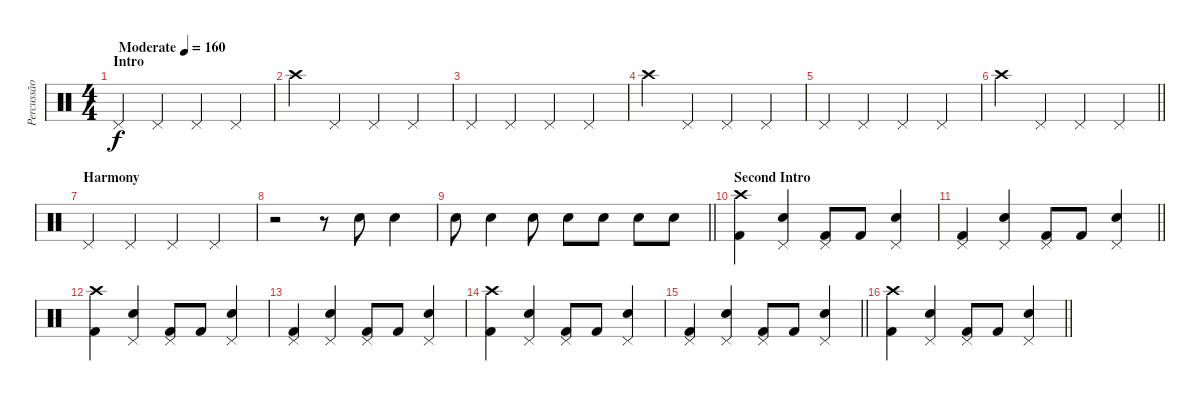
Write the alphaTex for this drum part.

\track ("Percussão" "Percussão") {instrument percussion}
\staff {score}
\articulation defaults
\ts (4 4)
\section ("" "Intro")
\tempo (160 "Moderate")
\clef neutral
\ks c "Pedal Hi-Hat (hit)".4{dy f} "Pedal Hi-Hat (hit)".4 "Pedal Hi-Hat (hit)".4 "Pedal Hi-Hat (hit)".4
|
"Crash high (hit)".4 "Pedal Hi-Hat (hit)".4 "Pedal Hi-Hat (hit)".4 "Pedal Hi-Hat (hit)".4 |
"Pedal Hi-Hat (hit)".4 "Pedal Hi-Hat (hit)".4 "Pedal Hi-Hat (hit)".4 "Pedal Hi-Hat (hit)".4 |
"Crash high (hit)".4 "Pedal Hi-Hat (hit)".4 "Pedal Hi-Hat (hit)".4 "Pedal Hi-Hat (hit)".4 |
"Pedal Hi-Hat (hit)".4 "Pedal Hi-Hat (hit)".4 "Pedal Hi-Hat (hit)".4 "Pedal Hi-Hat (hit)".4 |
\barLineRight lightlight "Crash high (hit)".4 "Pedal Hi-Hat (hit)".4 "Pedal Hi-Hat (hit)".4 "Pedal Hi-Hat (hit)".4
|
\section ("" "Harmony")
"Pedal Hi-Hat (hit)".4 "Pedal Hi-Hat (hit)".4 "Pedal Hi-Hat (hit)".4 "Pedal Hi-Hat (hit)".4 |
r.2 r.8 "Snare (hit) 2".8 "Snare (hit) 2".4 |
\barLineRight lightlight "Snare (hit) 2".8 "Snare (hit) 2".4 "Snare (hit) 2".8 "Snare (hit) 2".8 "Snare (hit) 2".8 "Snare (hit) 2".8 "Snare (hit) 2".8
|
\section ("" "Second Intro")
("Crash high (hit)" "Kick (hit) 2").4 ("Pedal Hi-Hat (hit)" "Snare (hit) 2").4 ("Pedal Hi-Hat (hit)" "Kick (hit) 2").8 "Kick (hit) 2".8 ("Pedal Hi-Hat (hit)" "Snare (hit) 2").4 |
\barLineRight lightlight
("Pedal Hi-Hat (hit)" "Kick (hit) 2").4 ("Pedal Hi-Hat (hit)" "Snare (hit) 2").4 ("Pedal Hi-Hat (hit)" "Kick (hit) 2").8 "Kick (hit) 2".8 ("Pedal Hi-Hat (hit)" "Snare (hit) 2").4 |
("Crash high (hit)" "Kick (hit) 2").4 ("Pedal Hi-Hat (hit)" "Snare (hit) 2").4 ("Pedal Hi-Hat (hit)" "Kick (hit) 2").8 "Kick (hit) 2".8 ("Pedal Hi-Hat (hit)" "Snare (hit) 2").4 |
("Pedal Hi-Hat (hit)" "Kick (hit) 2").4 ("Pedal Hi-Hat (hit)" "Snare (hit) 2").4 ("Pedal Hi-Hat (hit)" "Kick (hit) 2").8 "Kick (hit) 2".8 ("Pedal Hi-Hat (hit)" "Snare (hit) 2").4 |
("Crash high (hit)" "Kick (hit) 2").4 ("Pedal Hi-Hat (hit)" "Snare (hit) 2").4 ("Pedal Hi-Hat (hit)" "Kick (hit) 2").8 "Kick (hit) 2".8 ("Pedal Hi-Hat (hit)" "Snare (hit) 2").4 |
\barLineRight lightlight
("Pedal Hi-Hat (hit)" "Kick (hit) 2").4 ("Pedal Hi-Hat (hit)" "Snare (hit) 2").4 ("Pedal Hi-Hat (hit)" "Kick (hit) 2").8 "Kick (hit) 2".8 ("Pedal Hi-Hat (hit)" "Snare (hit) 2").4 |
\barLineRight lightlight
("Crash high (hit)" "Kick (hit) 2").4 ("Pedal Hi-Hat (hit)" "Snare (hit) 2").4 ("Pedal Hi-Hat (hit)" "Kick (hit) 2").8 "Kick (hit) 2".8 ("Pedal Hi-Hat (hit)" "Snare (hit) 2").4
